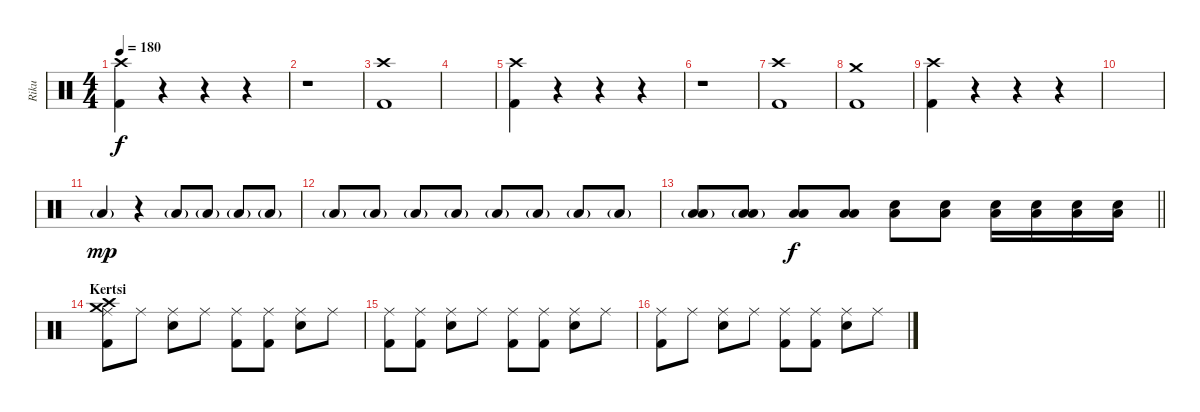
\track ("Riku" "Riku") {instrument percussion}
\staff {score}
\articulation defaults
\ts (4 4)
\tempo 180
\clef neutral
\ks c
("Kick (hit) 2" "Crash high (hit)").4{dy f} r.4 r.4 r.4 |
r.1 |
("Kick (hit) 2" "Crash high (hit)").1 |
|
("Kick (hit) 2" "Crash high (hit)").4 r.4 r.4 r.4 |
r.1 |
("Kick (hit) 2" "Crash high (hit)").1 |
("Kick (hit) 2" "Crash medium (hit)").1 |
("Kick (hit) 2" "Crash high (hit)").4 r.4 r.4 r.4 |
|
"Low Floor Tom (hit)"{g}.4{dy mp} r.4 "Low Floor Tom (hit)"{g}.8 "Low Floor Tom (hit)"{g}.8 "Low Floor Tom (hit)"{g}.8 "Low Floor Tom (hit)"{g}.8 |
"Low Floor Tom (hit)"{g}.8 "Low Floor Tom (hit)"{g}.8 "Low Floor Tom (hit)"{g}.8 "Low Floor Tom (hit)"{g}.8 "Low Floor Tom (hit)"{g}.8 "Low Floor Tom (hit)"{g}.8 "Low Floor Tom (hit)"{g}.8 "Low Floor Tom (hit)"{g}.8 |
\barLineRight lightlight
("Low Floor Tom (hit)"{g} "Low Tom (hit)"{g}).8 ("Low Floor Tom (hit)"{g} "Low Tom (hit)"{g}).8 ("Low Floor Tom (hit)" "Low Tom (hit)").8{dy f} ("Low Floor Tom (hit)" "Low Tom (hit)").8 ("Low Floor Tom (hit)" "Snare (hit) 2").8 ("Low Floor Tom (hit)" "Snare (hit) 2").8 ("Low Floor Tom (hit)" "Snare (hit) 2").16 ("Low Floor Tom (hit)" "Snare (hit) 2").16 ("Low Floor Tom (hit)" "Snare (hit) 2").16 ("Low Floor Tom (hit)" "Snare (hit) 2").16 |
\section ("" "Kertsi")
("Kick (hit) 2" "Ride (middle)" "Crash medium (hit)" "Crash high (hit)").8 "Ride (middle)".8 ("Snare (hit) 2" "Ride (middle)").8 "Ride (middle)".8 ("Kick (hit) 2" "Ride (middle)").8 ("Kick (hit) 2" "Ride (middle)").8 ("Snare (hit) 2" "Ride (middle)").8 "Ride (middle)".8 |
("Kick (hit) 2" "Ride (middle)").8 ("Kick (hit) 2" "Ride (middle)").8 ("Snare (hit) 2" "Ride (middle)").8 "Ride (middle)".8 ("Kick (hit) 2" "Ride (middle)").8 ("Kick (hit) 2" "Ride (middle)").8 ("Snare (hit) 2" "Ride (middle)").8 "Ride (middle)".8 |
("Kick (hit) 2" "Ride (middle)").8 "Ride (middle)".8 ("Snare (hit) 2" "Ride (middle)").8 "Ride (middle)".8 ("Kick (hit) 2" "Ride (middle)").8 ("Kick (hit) 2" "Ride (middle)").8 ("Snare (hit) 2" "Ride (middle)").8 "Ride (middle)".8
